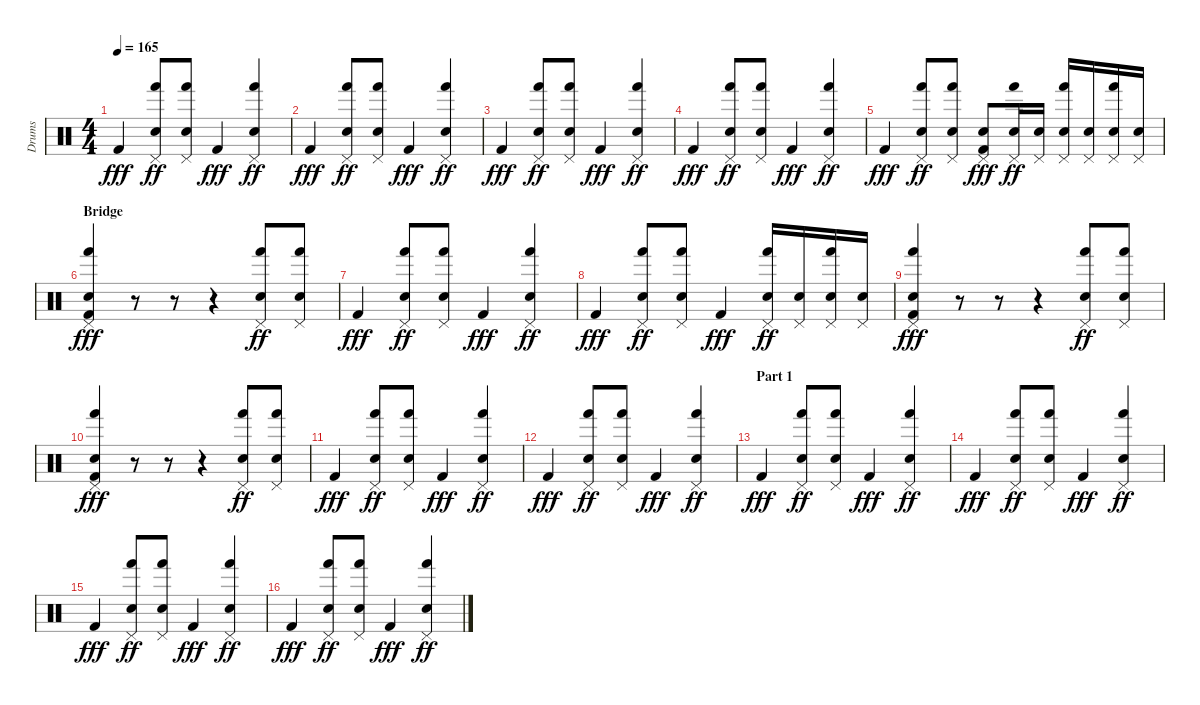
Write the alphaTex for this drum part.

\track ("Drums" "Drums") {instrument percussion}
\staff {score}
\articulation defaults
\ts (4 4)
\tempo 165
\clef neutral
\ks c "Kick (hit) 2".4{dy fff}
("Pedal Hi-Hat (hit)" "Hand (hit)" "Electric Snare (hit)").8{dy ff} ("Pedal Hi-Hat (hit)" "Hand (hit)" "Electric Snare (hit)").8 "Kick (hit) 2".4{dy fff} ("Pedal Hi-Hat (hit)" "Hand (hit)" "Electric Snare (hit)").4{dy ff} |
"Kick (hit) 2".4{dy fff} ("Pedal Hi-Hat (hit)" "Hand (hit)" "Electric Snare (hit)").8{dy ff} ("Pedal Hi-Hat (hit)" "Hand (hit)" "Electric Snare (hit)").8 "Kick (hit) 2".4{dy fff} ("Pedal Hi-Hat (hit)" "Hand (hit)" "Electric Snare (hit)").4{dy ff} |
"Kick (hit) 2".4{dy fff} ("Pedal Hi-Hat (hit)" "Hand (hit)" "Electric Snare (hit)").8{dy ff} ("Pedal Hi-Hat (hit)" "Hand (hit)" "Electric Snare (hit)").8 "Kick (hit) 2".4{dy fff} ("Pedal Hi-Hat (hit)" "Hand (hit)" "Electric Snare (hit)").4{dy ff} |
"Kick (hit) 2".4{dy fff} ("Pedal Hi-Hat (hit)" "Hand (hit)" "Electric Snare (hit)").8{dy ff} ("Pedal Hi-Hat (hit)" "Hand (hit)" "Electric Snare (hit)").8 "Kick (hit) 2".4{dy fff} ("Pedal Hi-Hat (hit)" "Hand (hit)" "Electric Snare (hit)").4{dy ff} |
"Kick (hit) 2".4{dy fff} ("Pedal Hi-Hat (hit)" "Hand (hit)" "Electric Snare (hit)").8{dy ff} ("Pedal Hi-Hat (hit)" "Hand (hit)" "Electric Snare (hit)").8 ("Pedal Hi-Hat (hit)" "Electric Snare (hit)" "Kick (hit) 2").8{dy fff} ("Pedal Hi-Hat (hit)" "Hand (hit)" "Electric Snare (hit)").16{dy ff} ("Pedal Hi-Hat (hit)" "Electric Snare (hit)").16 ("Pedal Hi-Hat (hit)" "Hand (hit)" "Electric Snare (hit)").16 ("Pedal Hi-Hat (hit)" "Electric Snare (hit)").16 ("Pedal Hi-Hat (hit)" "Hand (hit)" "Electric Snare (hit)").16 ("Pedal Hi-Hat (hit)" "Electric Snare (hit)").16 |
\section ("" "Bridge")
("Pedal Hi-Hat (hit)" "Hand (hit)" "Electric Snare (hit)" "Kick (hit) 2").4{dy fff} r.8 r.8 r.4 ("Pedal Hi-Hat (hit)" "Hand (hit)" "Electric Snare (hit)").8{dy ff} ("Pedal Hi-Hat (hit)" "Hand (hit)" "Electric Snare (hit)").8 |
"Kick (hit) 2".4{dy fff} ("Pedal Hi-Hat (hit)" "Hand (hit)" "Electric Snare (hit)").8{dy ff} ("Pedal Hi-Hat (hit)" "Hand (hit)" "Electric Snare (hit)").8 "Kick (hit) 2".4{dy fff} ("Pedal Hi-Hat (hit)" "Hand (hit)" "Electric Snare (hit)").4{dy ff} |
"Kick (hit) 2".4{dy fff} ("Pedal Hi-Hat (hit)" "Hand (hit)" "Electric Snare (hit)").8{dy ff} ("Pedal Hi-Hat (hit)" "Hand (hit)" "Electric Snare (hit)").8 "Kick (hit) 2".4{dy fff} ("Pedal Hi-Hat (hit)" "Hand (hit)" "Electric Snare (hit)").16{dy ff} ("Pedal Hi-Hat (hit)" "Electric Snare (hit)").16 ("Pedal Hi-Hat (hit)" "Hand (hit)" "Electric Snare (hit)").16 ("Pedal Hi-Hat (hit)" "Electric Snare (hit)").16 |
("Pedal Hi-Hat (hit)" "Hand (hit)" "Electric Snare (hit)" "Kick (hit) 2").4{dy fff} r.8 r.8 r.4 ("Pedal Hi-Hat (hit)" "Hand (hit)" "Electric Snare (hit)").8{dy ff} ("Pedal Hi-Hat (hit)" "Hand (hit)" "Electric Snare (hit)").8 |
("Pedal Hi-Hat (hit)" "Hand (hit)" "Electric Snare (hit)" "Kick (hit) 2").4{dy fff} r.8 r.8 r.4 ("Pedal Hi-Hat (hit)" "Hand (hit)" "Electric Snare (hit)").8{dy ff} ("Pedal Hi-Hat (hit)" "Hand (hit)" "Electric Snare (hit)").8 |
"Kick (hit) 2".4{dy fff} ("Pedal Hi-Hat (hit)" "Hand (hit)" "Electric Snare (hit)").8{dy ff} ("Pedal Hi-Hat (hit)" "Hand (hit)" "Electric Snare (hit)").8 "Kick (hit) 2".4{dy fff} ("Pedal Hi-Hat (hit)" "Hand (hit)" "Electric Snare (hit)").4{dy ff} |
"Kick (hit) 2".4{dy fff} ("Pedal Hi-Hat (hit)" "Hand (hit)" "Electric Snare (hit)").8{dy ff} ("Pedal Hi-Hat (hit)" "Hand (hit)" "Electric Snare (hit)").8 "Kick (hit) 2".4{dy fff} ("Pedal Hi-Hat (hit)" "Hand (hit)" "Electric Snare (hit)").4{dy ff} |
\section ("" "Part 1")
"Kick (hit) 2".4{dy fff} ("Pedal Hi-Hat (hit)" "Hand (hit)" "Electric Snare (hit)").8{dy ff} ("Pedal Hi-Hat (hit)" "Hand (hit)" "Electric Snare (hit)").8 "Kick (hit) 2".4{dy fff} ("Pedal Hi-Hat (hit)" "Hand (hit)" "Electric Snare (hit)").4{dy ff} |
"Kick (hit) 2".4{dy fff} ("Pedal Hi-Hat (hit)" "Hand (hit)" "Electric Snare (hit)").8{dy ff} ("Pedal Hi-Hat (hit)" "Hand (hit)" "Electric Snare (hit)").8 "Kick (hit) 2".4{dy fff} ("Pedal Hi-Hat (hit)" "Hand (hit)" "Electric Snare (hit)").4{dy ff} |
"Kick (hit) 2".4{dy fff} ("Pedal Hi-Hat (hit)" "Hand (hit)" "Electric Snare (hit)").8{dy ff} ("Pedal Hi-Hat (hit)" "Hand (hit)" "Electric Snare (hit)").8 "Kick (hit) 2".4{dy fff} ("Pedal Hi-Hat (hit)" "Hand (hit)" "Electric Snare (hit)").4{dy ff} |
"Kick (hit) 2".4{dy fff} ("Pedal Hi-Hat (hit)" "Hand (hit)" "Electric Snare (hit)").8{dy ff} ("Pedal Hi-Hat (hit)" "Hand (hit)" "Electric Snare (hit)").8 "Kick (hit) 2".4{dy fff} ("Pedal Hi-Hat (hit)" "Hand (hit)" "Electric Snare (hit)").4{dy ff}
